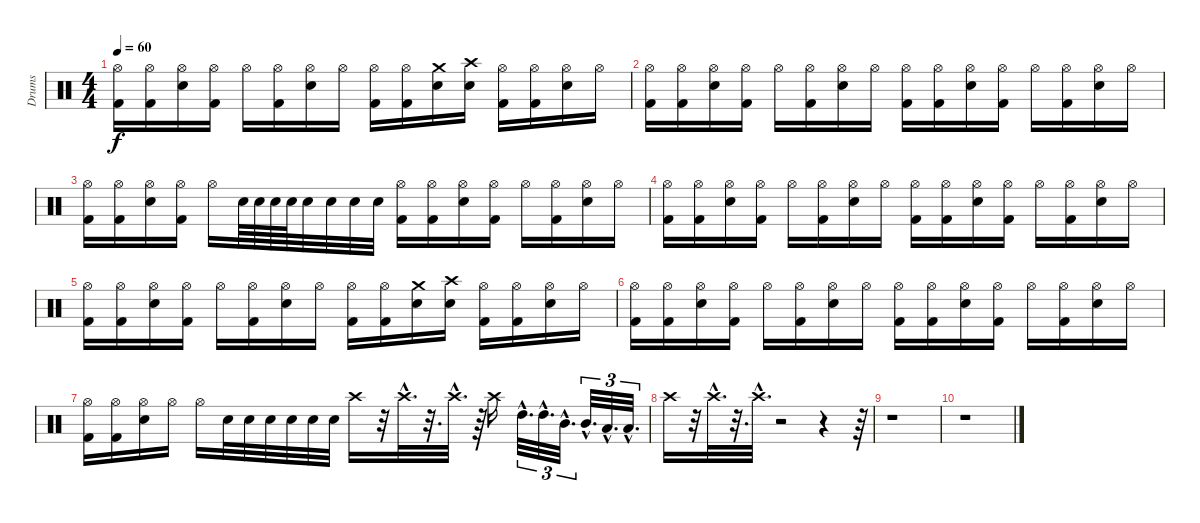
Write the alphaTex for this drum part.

\track ("Drums" "Drums") {instrument percussion}
\staff {score}
\articulation defaults
\ts (4 4)
\tempo 60
\clef neutral
\ks c
("Hi-Hat (open)" "Kick (hit) 2").16{dy f} ("Hi-Hat (open)" "Kick (hit) 2").16 ("Hi-Hat (open)" "Electric Snare (hit)").16 ("Hi-Hat (open)" "Kick (hit) 2").16 "Hi-Hat (open)".16 ("Hi-Hat (open)" "Kick (hit) 2").16 ("Hi-Hat (open)" "Electric Snare (hit)").16 "Hi-Hat (open)".16 ("Hi-Hat (open)" "Kick (hit) 2").16 ("Hi-Hat (open)" "Kick (hit) 2").16 ("Crash medium (hit)" "Electric Snare (hit)").16 ("Crash high (hit)" "Electric Snare (hit)").16 ("Hi-Hat (open)" "Kick (hit) 2").16 ("Hi-Hat (open)" "Kick (hit) 2").16 ("Hi-Hat (open)" "Electric Snare (hit)").16 "Hi-Hat (open)".16 |
("Hi-Hat (open)" "Kick (hit) 2").16 ("Hi-Hat (open)" "Kick (hit) 2").16 ("Hi-Hat (open)" "Electric Snare (hit)").16 ("Hi-Hat (open)" "Kick (hit) 2").16 "Hi-Hat (open)".16 ("Hi-Hat (open)" "Kick (hit) 2").16 ("Hi-Hat (open)" "Electric Snare (hit)").16 "Hi-Hat (open)".16 ("Hi-Hat (open)" "Kick (hit) 2").16 ("Hi-Hat (open)" "Kick (hit) 2").16 ("Hi-Hat (open)" "Electric Snare (hit)").16 ("Hi-Hat (open)" "Kick (hit) 2").16 "Hi-Hat (open)".16 ("Hi-Hat (open)" "Kick (hit) 2").16 ("Hi-Hat (open)" "Electric Snare (hit)").16 "Hi-Hat (open)".16 |
("Hi-Hat (open)" "Kick (hit) 2").16 ("Hi-Hat (open)" "Kick (hit) 2").16 ("Hi-Hat (open)" "Electric Snare (hit)").16 ("Hi-Hat (open)" "Kick (hit) 2").16 "Hi-Hat (open)".16 "Electric Snare (hit)".64 "Electric Snare (hit)".64 "Electric Snare (hit)".64 "Electric Snare (hit)".64 "Electric Snare (hit)".32 "Electric Snare (hit)".32 "Electric Snare (hit)".32 "Electric Snare (hit)".32 ("Hi-Hat (open)" "Kick (hit) 2").16 ("Hi-Hat (open)" "Kick (hit) 2").16 ("Hi-Hat (open)" "Electric Snare (hit)").16 ("Hi-Hat (open)" "Kick (hit) 2").16 "Hi-Hat (open)".16 ("Hi-Hat (open)" "Kick (hit) 2").16 ("Hi-Hat (open)" "Electric Snare (hit)").16 "Hi-Hat (open)".16 |
("Hi-Hat (open)" "Kick (hit) 2").16 ("Hi-Hat (open)" "Kick (hit) 2").16 ("Hi-Hat (open)" "Electric Snare (hit)").16 ("Hi-Hat (open)" "Kick (hit) 2").16 "Hi-Hat (open)".16 ("Hi-Hat (open)" "Kick (hit) 2").16 ("Hi-Hat (open)" "Electric Snare (hit)").16 "Hi-Hat (open)".16 ("Hi-Hat (open)" "Kick (hit) 2").16 ("Hi-Hat (open)" "Kick (hit) 2").16 ("Hi-Hat (open)" "Electric Snare (hit)").16 ("Hi-Hat (open)" "Kick (hit) 2").16 "Hi-Hat (open)".16 ("Hi-Hat (open)" "Kick (hit) 2").16 ("Hi-Hat (open)" "Electric Snare (hit)").16 "Hi-Hat (open)".16 |
("Hi-Hat (open)" "Kick (hit) 2").16 ("Hi-Hat (open)" "Kick (hit) 2").16 ("Hi-Hat (open)" "Electric Snare (hit)").16 ("Hi-Hat (open)" "Kick (hit) 2").16 "Hi-Hat (open)".16 ("Hi-Hat (open)" "Kick (hit) 2").16 ("Hi-Hat (open)" "Electric Snare (hit)").16 "Hi-Hat (open)".16 ("Hi-Hat (open)" "Kick (hit) 2").16 ("Hi-Hat (open)" "Kick (hit) 2").16 ("Crash medium (hit)" "Electric Snare (hit)").16 ("Crash high (hit)" "Electric Snare (hit)").16 ("Hi-Hat (open)" "Kick (hit) 2").16 ("Hi-Hat (open)" "Kick (hit) 2").16 ("Hi-Hat (open)" "Electric Snare (hit)").16 "Hi-Hat (open)".16 |
("Hi-Hat (open)" "Kick (hit) 2").16 ("Hi-Hat (open)" "Kick (hit) 2").16 ("Hi-Hat (open)" "Electric Snare (hit)").16 ("Hi-Hat (open)" "Kick (hit) 2").16 "Hi-Hat (open)".16 ("Hi-Hat (open)" "Kick (hit) 2").16 ("Hi-Hat (open)" "Electric Snare (hit)").16 "Hi-Hat (open)".16 ("Hi-Hat (open)" "Kick (hit) 2").16 ("Hi-Hat (open)" "Kick (hit) 2").16 ("Hi-Hat (open)" "Electric Snare (hit)").16 ("Hi-Hat (open)" "Kick (hit) 2").16 "Hi-Hat (open)".16 ("Hi-Hat (open)" "Kick (hit) 2").16 ("Hi-Hat (open)" "Electric Snare (hit)").16 "Hi-Hat (open)".16 |
("Hi-Hat (open)" "Kick (hit) 2").16 ("Hi-Hat (open)" "Kick (hit) 2").16 ("Hi-Hat (open)" "Electric Snare (hit)").16 "Hi-Hat (open)".16 "Hi-Hat (open)".16 "Electric Snare (hit)".32 "Electric Snare (hit)".32 "Electric Snare (hit)".32 "Electric Snare (hit)".32 "Electric Snare (hit)".32 "Electric Snare (hit)".32 "Crash high (hit)".16 r.32 "Crash high (hit)"{hac}.32{d} r.32{d} "Crash high (hit)"{hac}.32{d} r.64 "Crash high (hit)".16 "High Tom (hit)"{hac}.32{d tu (3 2)} "High Tom (hit)"{hac}.32{d tu (3 2)} "Mid Tom (hit)"{hac}.32{d tu (3 2)} "Mid Tom (hit)"{hac}.32{d tu (3 2)} "Low Tom (hit)"{hac}.32{d tu (3 2)} "Low Tom (hit)"{hac}.32{d tu (3 2)} |
"Crash high (hit)".16 r.32 "Crash high (hit)"{hac}.32{d} r.32{d} "Crash high (hit)"{hac}.32{d} r.2 r.4 r.64 |
r.1 |
r.1
